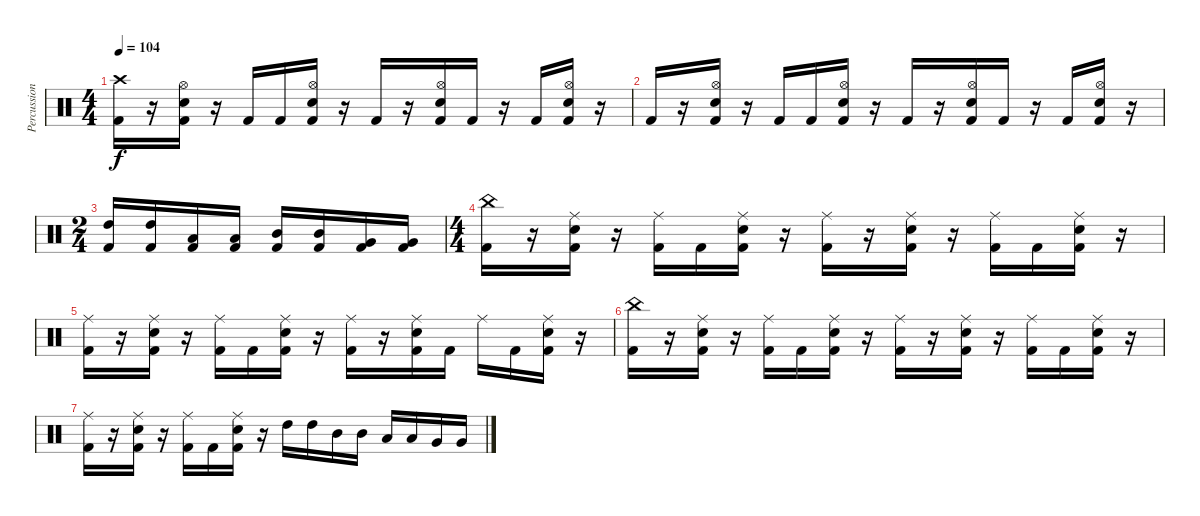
\track ("Percussion" "Percussion") {instrument percussion}
\staff {score}
\articulation defaults
\ts (4 4)
\tempo 104
\clef neutral
\ks c
("Crash high (hit)" "Kick (hit) 2").16{dy f} r.16 ("Hi-Hat (open)" "Snare (hit) 2" "Kick (hit) 2").16 r.16 "Kick (hit) 2".16 "Kick (hit) 2".16 ("Hi-Hat (open)" "Snare (hit) 2" "Kick (hit) 2").16 r.16 "Kick (hit) 2".16 r.16 ("Hi-Hat (open)" "Snare (hit) 2" "Kick (hit) 2").16 "Kick (hit) 2".16 r.16 "Kick (hit) 2".16 ("Hi-Hat (open)" "Snare (hit) 2" "Kick (hit) 2").16 r.16 |
"Kick (hit) 2".16 r.16 ("Hi-Hat (open)" "Snare (hit) 2" "Kick (hit) 2").16 r.16 "Kick (hit) 2".16 "Kick (hit) 2".16 ("Hi-Hat (open)" "Snare (hit) 2" "Kick (hit) 2").16 r.16 "Kick (hit) 2".16 r.16 ("Hi-Hat (open)" "Snare (hit) 2" "Kick (hit) 2").16 "Kick (hit) 2".16 r.16 "Kick (hit) 2".16 ("Hi-Hat (open)" "Snare (hit) 2" "Kick (hit) 2").16 r.16 |
\ts (2 4)
("High Tom (hit)" "Kick (hit) 2").16 ("High Tom (hit)" "Kick (hit) 2").16 ("Low Floor Tom (hit)" "Kick (hit) 2").16 ("Low Floor Tom (hit)" "Kick (hit) 2").16 ("Mid Tom (hit)" "Kick (hit) 2").16 ("Mid Tom (hit)" "Kick (hit) 2").16 ("Very Low Tom (hit)" "Kick (hit) 2").16 ("Very Low Tom (hit)" "Kick (hit) 2").16 |
\ts (4 4)
("China (hit)" "Kick (hit) 2").16 r.16 ("Ride (middle)" "Snare (hit) 2" "Kick (hit) 2").16 r.16 ("Ride (middle)" "Kick (hit) 2").16 "Kick (hit) 2".16 ("Ride (middle)" "Snare (hit) 2" "Kick (hit) 2").16 r.16 ("Ride (middle)" "Kick (hit) 2").16 r.16 ("Ride (middle)" "Snare (hit) 2" "Kick (hit) 2").16 r.16 ("Ride (middle)" "Kick (hit) 2").16 "Kick (hit) 2".16 ("Ride (middle)" "Snare (hit) 2" "Kick (hit) 2").16 r.16 |
("Ride (middle)" "Kick (hit) 2").16 r.16 ("Ride (middle)" "Snare (hit) 2" "Kick (hit) 2").16 r.16 ("Ride (middle)" "Kick (hit) 2").16 "Kick (hit) 2".16 ("Ride (middle)" "Snare (hit) 2" "Kick (hit) 2").16 r.16 ("Ride (middle)" "Kick (hit) 2").16 r.16 ("Ride (middle)" "Snare (hit) 2" "Kick (hit) 2").16 "Kick (hit) 2".16 "Ride (middle)".16 "Kick (hit) 2".16 ("Ride (middle)" "Snare (hit) 2" "Kick (hit) 2").16 r.16 |
("China (hit)" "Kick (hit) 2").16 r.16 ("Ride (middle)" "Snare (hit) 2" "Kick (hit) 2").16 r.16 ("Ride (middle)" "Kick (hit) 2").16 "Kick (hit) 2".16 ("Ride (middle)" "Snare (hit) 2" "Kick (hit) 2").16 r.16 ("Ride (middle)" "Kick (hit) 2").16 r.16 ("Ride (middle)" "Snare (hit) 2" "Kick (hit) 2").16 r.16 ("Ride (middle)" "Kick (hit) 2").16 "Kick (hit) 2".16 ("Ride (middle)" "Snare (hit) 2" "Kick (hit) 2").16 r.16 |
("Ride (middle)" "Kick (hit) 2").16 r.16 ("Ride (middle)" "Snare (hit) 2" "Kick (hit) 2").16 r.16 ("Ride (middle)" "Kick (hit) 2").16 "Kick (hit) 2".16 ("Ride (middle)" "Snare (hit) 2" "Kick (hit) 2").16 r.16 "High Tom (hit)".16 "High Tom (hit)".16 "Mid Tom (hit)".16 "Mid Tom (hit)".16 "Low Tom (hit)".16 "Low Tom (hit)".16 "Very Low Tom (hit)".16 "Very Low Tom (hit)".16
